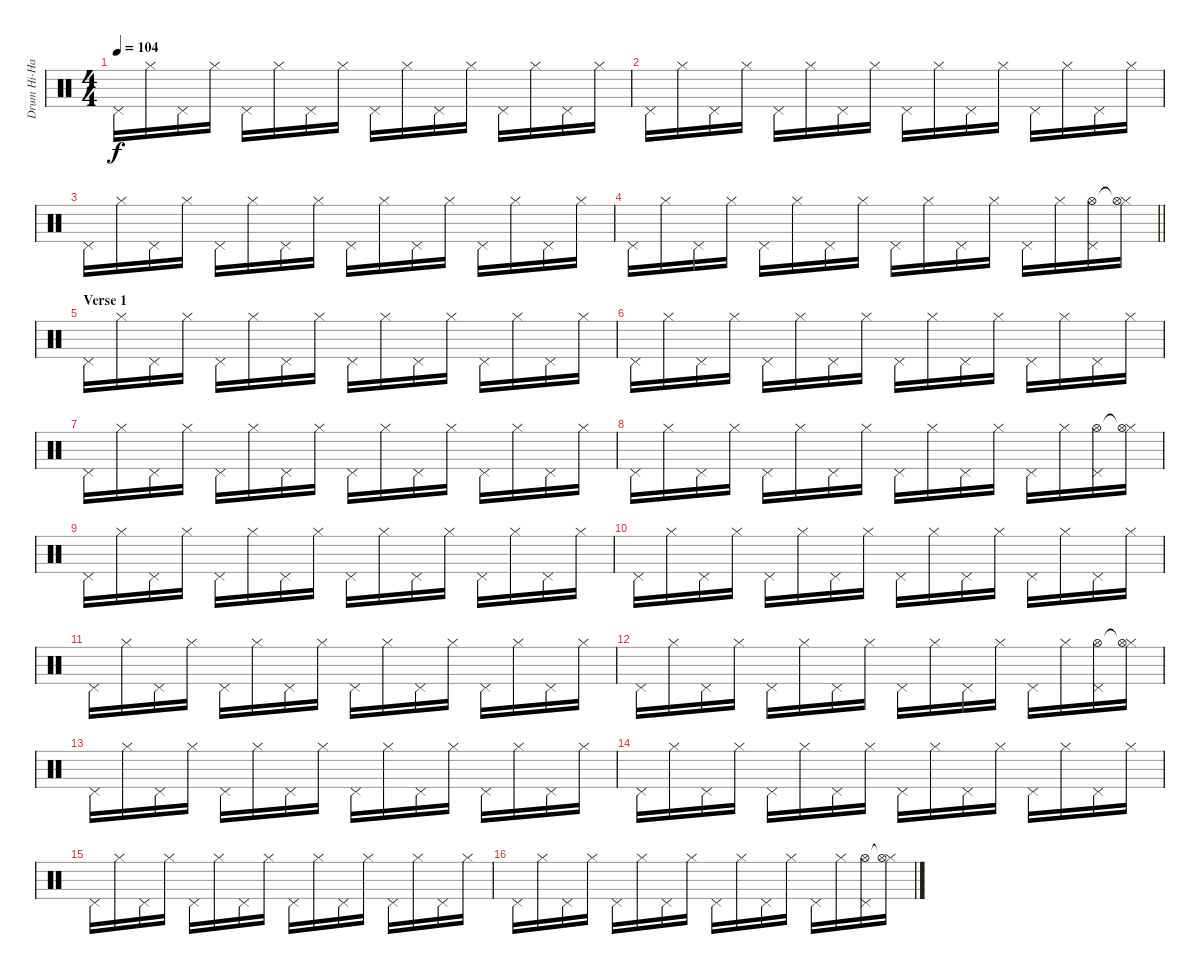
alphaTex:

\track ("Drum Hi-Hat" "Drum Hi-Ha") {instrument percussion}
\staff {score}
\articulation defaults
\ts (4 4)
\tempo 104
\clef neutral
\ks c "Pedal Hi-Hat (hit)".16{dy f} "Hi-Hat (closed)".16 "Pedal Hi-Hat (hit)".16 "Hi-Hat (closed)".16 "Pedal Hi-Hat (hit)".16 "Hi-Hat (closed)".16 "Pedal Hi-Hat (hit)".16 "Hi-Hat (closed)".16 "Pedal Hi-Hat (hit)".16 "Hi-Hat (closed)".16 "Pedal Hi-Hat (hit)".16 "Hi-Hat (closed)".16 "Pedal Hi-Hat (hit)".16 "Hi-Hat (closed)".16 "Pedal Hi-Hat (hit)".16 "Hi-Hat (closed)".16
|
"Pedal Hi-Hat (hit)".16 "Hi-Hat (closed)".16 "Pedal Hi-Hat (hit)".16 "Hi-Hat (closed)".16 "Pedal Hi-Hat (hit)".16 "Hi-Hat (closed)".16 "Pedal Hi-Hat (hit)".16 "Hi-Hat (closed)".16 "Pedal Hi-Hat (hit)".16 "Hi-Hat (closed)".16 "Pedal Hi-Hat (hit)".16 "Hi-Hat (closed)".16 "Pedal Hi-Hat (hit)".16 "Hi-Hat (closed)".16 "Pedal Hi-Hat (hit)".16 "Hi-Hat (closed)".16 |
"Pedal Hi-Hat (hit)".16 "Hi-Hat (closed)".16 "Pedal Hi-Hat (hit)".16 "Hi-Hat (closed)".16 "Pedal Hi-Hat (hit)".16 "Hi-Hat (closed)".16 "Pedal Hi-Hat (hit)".16 "Hi-Hat (closed)".16 "Pedal Hi-Hat (hit)".16 "Hi-Hat (closed)".16 "Pedal Hi-Hat (hit)".16 "Hi-Hat (closed)".16 "Pedal Hi-Hat (hit)".16 "Hi-Hat (closed)".16 "Pedal Hi-Hat (hit)".16 "Hi-Hat (closed)".16 |
\barLineRight lightlight "Pedal Hi-Hat (hit)".16 "Hi-Hat (closed)".16 "Pedal Hi-Hat (hit)".16 "Hi-Hat (closed)".16 "Pedal Hi-Hat (hit)".16 "Hi-Hat (closed)".16 "Pedal Hi-Hat (hit)".16 "Hi-Hat (closed)".16 "Pedal Hi-Hat (hit)".16 "Hi-Hat (closed)".16 "Pedal Hi-Hat (hit)".16 "Hi-Hat (closed)".16 "Pedal Hi-Hat (hit)".16 "Hi-Hat (closed)".16
("Pedal Hi-Hat (hit)" "Hi-Hat (open)").16 ("Hi-Hat (closed)" "Hi-Hat (open)"{t}).16 |
\section ("" "Verse 1")
"Pedal Hi-Hat (hit)".16 "Hi-Hat (closed)".16 "Pedal Hi-Hat (hit)".16 "Hi-Hat (closed)".16 "Pedal Hi-Hat (hit)".16 "Hi-Hat (closed)".16 "Pedal Hi-Hat (hit)".16 "Hi-Hat (closed)".16 "Pedal Hi-Hat (hit)".16 "Hi-Hat (closed)".16 "Pedal Hi-Hat (hit)".16 "Hi-Hat (closed)".16 "Pedal Hi-Hat (hit)".16 "Hi-Hat (closed)".16 "Pedal Hi-Hat (hit)".16 "Hi-Hat (closed)".16 |
"Pedal Hi-Hat (hit)".16 "Hi-Hat (closed)".16 "Pedal Hi-Hat (hit)".16 "Hi-Hat (closed)".16 "Pedal Hi-Hat (hit)".16 "Hi-Hat (closed)".16 "Pedal Hi-Hat (hit)".16 "Hi-Hat (closed)".16 "Pedal Hi-Hat (hit)".16 "Hi-Hat (closed)".16 "Pedal Hi-Hat (hit)".16 "Hi-Hat (closed)".16 "Pedal Hi-Hat (hit)".16 "Hi-Hat (closed)".16 "Pedal Hi-Hat (hit)".16 "Hi-Hat (closed)".16 |
"Pedal Hi-Hat (hit)".16 "Hi-Hat (closed)".16 "Pedal Hi-Hat (hit)".16 "Hi-Hat (closed)".16 "Pedal Hi-Hat (hit)".16 "Hi-Hat (closed)".16 "Pedal Hi-Hat (hit)".16 "Hi-Hat (closed)".16 "Pedal Hi-Hat (hit)".16 "Hi-Hat (closed)".16 "Pedal Hi-Hat (hit)".16 "Hi-Hat (closed)".16 "Pedal Hi-Hat (hit)".16 "Hi-Hat (closed)".16 "Pedal Hi-Hat (hit)".16 "Hi-Hat (closed)".16 |
"Pedal Hi-Hat (hit)".16 "Hi-Hat (closed)".16 "Pedal Hi-Hat (hit)".16 "Hi-Hat (closed)".16 "Pedal Hi-Hat (hit)".16 "Hi-Hat (closed)".16 "Pedal Hi-Hat (hit)".16 "Hi-Hat (closed)".16 "Pedal Hi-Hat (hit)".16 "Hi-Hat (closed)".16 "Pedal Hi-Hat (hit)".16 "Hi-Hat (closed)".16 "Pedal Hi-Hat (hit)".16 "Hi-Hat (closed)".16 ("Pedal Hi-Hat (hit)" "Hi-Hat (open)").16 ("Hi-Hat (closed)" "Hi-Hat (open)"{t}).16 |
"Pedal Hi-Hat (hit)".16 "Hi-Hat (closed)".16 "Pedal Hi-Hat (hit)".16 "Hi-Hat (closed)".16 "Pedal Hi-Hat (hit)".16 "Hi-Hat (closed)".16 "Pedal Hi-Hat (hit)".16 "Hi-Hat (closed)".16 "Pedal Hi-Hat (hit)".16 "Hi-Hat (closed)".16 "Pedal Hi-Hat (hit)".16 "Hi-Hat (closed)".16 "Pedal Hi-Hat (hit)".16 "Hi-Hat (closed)".16 "Pedal Hi-Hat (hit)".16 "Hi-Hat (closed)".16 |
"Pedal Hi-Hat (hit)".16 "Hi-Hat (closed)".16 "Pedal Hi-Hat (hit)".16 "Hi-Hat (closed)".16 "Pedal Hi-Hat (hit)".16 "Hi-Hat (closed)".16 "Pedal Hi-Hat (hit)".16 "Hi-Hat (closed)".16 "Pedal Hi-Hat (hit)".16 "Hi-Hat (closed)".16 "Pedal Hi-Hat (hit)".16 "Hi-Hat (closed)".16 "Pedal Hi-Hat (hit)".16 "Hi-Hat (closed)".16 "Pedal Hi-Hat (hit)".16 "Hi-Hat (closed)".16 |
"Pedal Hi-Hat (hit)".16 "Hi-Hat (closed)".16 "Pedal Hi-Hat (hit)".16 "Hi-Hat (closed)".16 "Pedal Hi-Hat (hit)".16 "Hi-Hat (closed)".16 "Pedal Hi-Hat (hit)".16 "Hi-Hat (closed)".16 "Pedal Hi-Hat (hit)".16 "Hi-Hat (closed)".16 "Pedal Hi-Hat (hit)".16 "Hi-Hat (closed)".16 "Pedal Hi-Hat (hit)".16 "Hi-Hat (closed)".16 "Pedal Hi-Hat (hit)".16 "Hi-Hat (closed)".16 |
"Pedal Hi-Hat (hit)".16 "Hi-Hat (closed)".16 "Pedal Hi-Hat (hit)".16 "Hi-Hat (closed)".16 "Pedal Hi-Hat (hit)".16 "Hi-Hat (closed)".16 "Pedal Hi-Hat (hit)".16 "Hi-Hat (closed)".16 "Pedal Hi-Hat (hit)".16 "Hi-Hat (closed)".16 "Pedal Hi-Hat (hit)".16 "Hi-Hat (closed)".16 "Pedal Hi-Hat (hit)".16 "Hi-Hat (closed)".16 ("Pedal Hi-Hat (hit)" "Hi-Hat (open)").16 ("Hi-Hat (closed)" "Hi-Hat (open)"{t}).16 |
"Pedal Hi-Hat (hit)".16 "Hi-Hat (closed)".16 "Pedal Hi-Hat (hit)".16 "Hi-Hat (closed)".16 "Pedal Hi-Hat (hit)".16 "Hi-Hat (closed)".16 "Pedal Hi-Hat (hit)".16 "Hi-Hat (closed)".16 "Pedal Hi-Hat (hit)".16 "Hi-Hat (closed)".16 "Pedal Hi-Hat (hit)".16 "Hi-Hat (closed)".16 "Pedal Hi-Hat (hit)".16 "Hi-Hat (closed)".16 "Pedal Hi-Hat (hit)".16 "Hi-Hat (closed)".16 |
"Pedal Hi-Hat (hit)".16 "Hi-Hat (closed)".16 "Pedal Hi-Hat (hit)".16 "Hi-Hat (closed)".16 "Pedal Hi-Hat (hit)".16 "Hi-Hat (closed)".16 "Pedal Hi-Hat (hit)".16 "Hi-Hat (closed)".16 "Pedal Hi-Hat (hit)".16 "Hi-Hat (closed)".16 "Pedal Hi-Hat (hit)".16 "Hi-Hat (closed)".16 "Pedal Hi-Hat (hit)".16 "Hi-Hat (closed)".16 "Pedal Hi-Hat (hit)".16 "Hi-Hat (closed)".16 |
"Pedal Hi-Hat (hit)".16 "Hi-Hat (closed)".16 "Pedal Hi-Hat (hit)".16 "Hi-Hat (closed)".16 "Pedal Hi-Hat (hit)".16 "Hi-Hat (closed)".16 "Pedal Hi-Hat (hit)".16 "Hi-Hat (closed)".16 "Pedal Hi-Hat (hit)".16 "Hi-Hat (closed)".16 "Pedal Hi-Hat (hit)".16 "Hi-Hat (closed)".16 "Pedal Hi-Hat (hit)".16 "Hi-Hat (closed)".16 "Pedal Hi-Hat (hit)".16 "Hi-Hat (closed)".16 |
"Pedal Hi-Hat (hit)".16 "Hi-Hat (closed)".16 "Pedal Hi-Hat (hit)".16 "Hi-Hat (closed)".16 "Pedal Hi-Hat (hit)".16 "Hi-Hat (closed)".16 "Pedal Hi-Hat (hit)".16 "Hi-Hat (closed)".16 "Pedal Hi-Hat (hit)".16 "Hi-Hat (closed)".16 "Pedal Hi-Hat (hit)".16 "Hi-Hat (closed)".16 "Pedal Hi-Hat (hit)".16 "Hi-Hat (closed)".16 ("Pedal Hi-Hat (hit)" "Hi-Hat (open)").16 ("Hi-Hat (closed)" "Hi-Hat (open)"{t}).16
